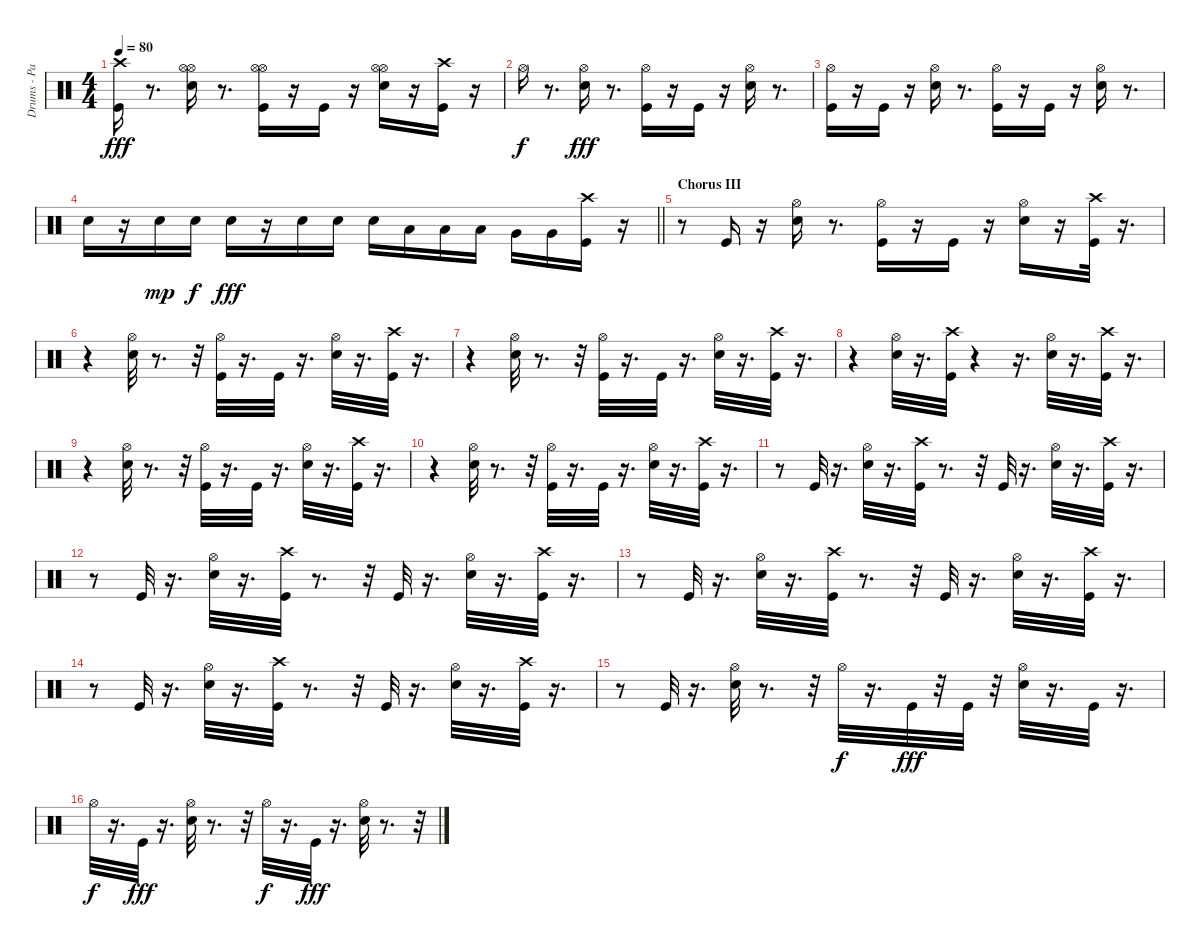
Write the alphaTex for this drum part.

\track ("Drums - Paice" "Drums - Pa") {instrument percussion}
\staff {score}
\articulation defaults
\ts (4 4)
\tempo 80
\clef neutral
\ks c
("Crash high (hit)" "Kick (hit)").16{dy fff} r.8{d} ("Snare (hit) 2" "Hi-Hat (open)" "Hi-Hat (open)").16 r.8{d} ("Hi-Hat (open)" "Kick (hit)" "Hi-Hat (open)").16 r.16 "Kick (hit)".16 r.16 ("Hi-Hat (open)" "Hi-Hat (open)" "Snare (hit) 2").16 r.16 ("Crash high (hit)" "Kick (hit)").16 r.16 |
"Hi-Hat (open)".16{dy f} r.8{d} ("Hi-Hat (open)" "Snare (hit) 2").16{dy fff} r.8{d} ("Kick (hit)" "Hi-Hat (open)").16 r.16 "Kick (hit)".16 r.16 ("Snare (hit) 2" "Hi-Hat (open)").16 r.8{d} |
("Kick (hit)" "Hi-Hat (open)").16 r.16 "Kick (hit)".16 r.16 ("Snare (hit) 2" "Hi-Hat (open)").16 r.8{d} ("Kick (hit)" "Hi-Hat (open)").16 r.16 "Kick (hit)".16 r.16 ("Snare (hit) 2" "Hi-Hat (open)").16 r.8{d} |
\barLineRight lightlight "Snare (hit) 2".16
r.16 "Snare (hit) 2".16{dy mp} "Snare (hit) 2".16{dy f} "Snare (hit) 2".16{dy fff} r.16 "Snare (hit) 2".16 "Snare (hit) 2".16 "Snare (hit) 2".16 "Low Tom (hit)".16 "Low Tom (hit)".16 "Low Tom (hit)".16 "Very Low Tom (hit)".16 "Very Low Tom (hit)".16 ("Kick (hit)" "Crash high (hit)").16 r.16 |
\section ("" "Chorus III")
r.8 "Kick (hit)".16 r.16 ("Hi-Hat (open)" "Snare (hit) 2").16 r.8{d} ("Kick (hit)" "Hi-Hat (open)").16 r.16 "Kick (hit)".16 r.16 ("Snare (hit) 2" "Hi-Hat (open)").16 r.16 ("Crash high (hit)" "Kick (hit)").32 r.16{d} |
r.4 ("Snare (hit) 2" "Hi-Hat (open)").32 r.8{d} r.32 ("Hi-Hat (open)" "Kick (hit)").32 r.16{d} "Kick (hit)".32 r.16{d} ("Hi-Hat (open)" "Snare (hit) 2").32 r.16{d} ("Kick (hit)" "Crash high (hit)").32 r.16{d} |
r.4 ("Snare (hit) 2" "Hi-Hat (open)").32 r.8{d} r.32 ("Kick (hit)" "Hi-Hat (open)").32 r.16{d} "Kick (hit)".32 r.16{d} ("Hi-Hat (open)" "Snare (hit) 2").32 r.16{d} ("Crash high (hit)" "Kick (hit)").32 r.16{d} |
r.4 ("Hi-Hat (open)" "Snare (hit) 2").32 r.16{d} ("Kick (hit)" "Crash high (hit)").32 r.4 r.16{d} ("Snare (hit) 2" "Hi-Hat (open)").32 r.16{d} ("Kick (hit)" "Crash high (hit)").32 r.16{d} |
r.4 ("Hi-Hat (open)" "Snare (hit) 2").32 r.8{d} r.32 ("Hi-Hat (open)" "Kick (hit)").32 r.16{d} "Kick (hit)".32 r.16{d} ("Snare (hit) 2" "Hi-Hat (open)").32 r.16{d} ("Crash high (hit)" "Kick (hit)").32 r.16{d} |
r.4 ("Hi-Hat (open)" "Snare (hit) 2").32 r.8{d} r.32 ("Hi-Hat (open)" "Kick (hit)").32 r.16{d} "Kick (hit)".32 r.16{d} ("Snare (hit) 2" "Hi-Hat (open)").32 r.16{d} ("Kick (hit)" "Crash high (hit)").32 r.16{d} |
r.8 "Kick (hit)".32 r.16{d} ("Hi-Hat (open)" "Snare (hit) 2").32 r.16{d} ("Crash high (hit)" "Kick (hit)").32 r.8{d} r.32 "Kick (hit)".32 r.16{d} ("Hi-Hat (open)" "Snare (hit) 2").32 r.16{d} ("Crash high (hit)" "Kick (hit)").32 r.16{d} |
r.8 "Kick (hit)".32 r.16{d} ("Snare (hit) 2" "Hi-Hat (open)").32 r.16{d} ("Kick (hit)" "Crash high (hit)").32 r.8{d} r.32 "Kick (hit)".32 r.16{d} ("Hi-Hat (open)" "Snare (hit) 2").32 r.16{d} ("Crash high (hit)" "Kick (hit)").32 r.16{d} |
r.8 "Kick (hit)".32 r.16{d} ("Hi-Hat (open)" "Snare (hit) 2").32 r.16{d} ("Crash high (hit)" "Kick (hit)").32 r.8{d} r.32 "Kick (hit)".32 r.16{d} ("Snare (hit) 2" "Hi-Hat (open)").32 r.16{d} ("Crash high (hit)" "Kick (hit)").32 r.16{d} |
r.8 "Kick (hit)".32 r.16{d} ("Snare (hit) 2" "Hi-Hat (open)").32 r.16{d} ("Crash high (hit)" "Kick (hit)").32 r.8{d} r.32 "Kick (hit)".32 r.16{d} ("Snare (hit) 2" "Hi-Hat (open)").32 r.16{d} ("Crash high (hit)" "Kick (hit)").32 r.16{d} |
r.8 "Kick (hit)".32 r.16{d} ("Snare (hit) 2" "Hi-Hat (open)").32 r.8{d} r.32 "Hi-Hat (open)".32{dy f} r.16{d} "Kick (hit)".32{dy fff} r.32 "Kick (hit)".32 r.32 ("Snare (hit) 2" "Hi-Hat (open)").32 r.16{d} "Kick (hit)".32 r.16{d} |
"Hi-Hat (open)".32{dy f} r.16{d} "Kick (hit)".32{dy fff} r.16{d} ("Snare (hit) 2" "Hi-Hat (open)").32 r.8{d} r.32 "Hi-Hat (open)".32{dy f} r.16{d} "Kick (hit)".32{dy fff} r.16{d} ("Snare (hit) 2" "Hi-Hat (open)").32 r.8{d} r.32
